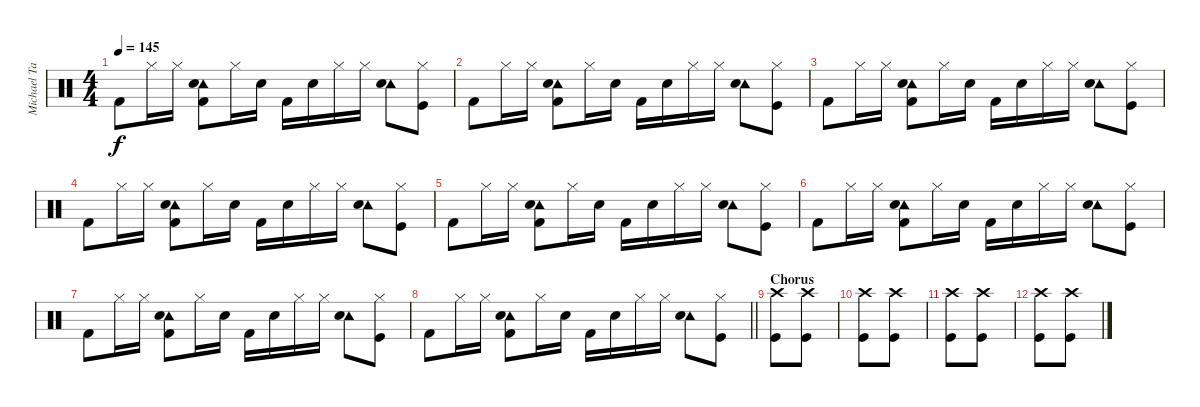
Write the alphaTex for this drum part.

\track ("Michael Tapper - Drums" "Michael Ta") {instrument percussion}
\staff {score}
\articulation defaults
\ts (4 4)
\tempo 145
\clef neutral
\ks c "Kick (hit) 2".8{dy f} "Hi-Hat (closed)".16 "Hi-Hat (closed)".16
("Tambourine (hit)" "Electric Snare (hit)" "Kick (hit) 2").8 "Hi-Hat (closed)".16 "Electric Snare (hit)".16 "Kick (hit) 2".16 "Electric Snare (hit)".16 "Hi-Hat (closed)".16 "Hi-Hat (closed)".16 ("Tambourine (hit)" "Electric Snare (hit)").8 ("Hi-Hat (closed)" "Kick (hit)").8 |
"Kick (hit) 2".8 "Hi-Hat (closed)".16 "Hi-Hat (closed)".16 ("Tambourine (hit)" "Electric Snare (hit)" "Kick (hit) 2").8 "Hi-Hat (closed)".16 "Electric Snare (hit)".16 "Kick (hit) 2".16 "Electric Snare (hit)".16 "Hi-Hat (closed)".16 "Hi-Hat (closed)".16 ("Tambourine (hit)" "Electric Snare (hit)").8 ("Hi-Hat (closed)" "Kick (hit)").8 |
"Kick (hit) 2".8 "Hi-Hat (closed)".16 "Hi-Hat (closed)".16 ("Tambourine (hit)" "Electric Snare (hit)" "Kick (hit) 2").8 "Hi-Hat (closed)".16 "Electric Snare (hit)".16 "Kick (hit) 2".16 "Electric Snare (hit)".16 "Hi-Hat (closed)".16 "Hi-Hat (closed)".16 ("Tambourine (hit)" "Electric Snare (hit)").8 ("Hi-Hat (closed)" "Kick (hit)").8 |
"Kick (hit) 2".8 "Hi-Hat (closed)".16 "Hi-Hat (closed)".16 ("Tambourine (hit)" "Electric Snare (hit)" "Kick (hit) 2").8 "Hi-Hat (closed)".16 "Electric Snare (hit)".16 "Kick (hit) 2".16 "Electric Snare (hit)".16 "Hi-Hat (closed)".16 "Hi-Hat (closed)".16 ("Tambourine (hit)" "Electric Snare (hit)").8 ("Hi-Hat (closed)" "Kick (hit)").8 |
"Kick (hit) 2".8 "Hi-Hat (closed)".16 "Hi-Hat (closed)".16 ("Tambourine (hit)" "Electric Snare (hit)" "Kick (hit) 2").8 "Hi-Hat (closed)".16 "Electric Snare (hit)".16 "Kick (hit) 2".16 "Electric Snare (hit)".16 "Hi-Hat (closed)".16 "Hi-Hat (closed)".16 ("Tambourine (hit)" "Electric Snare (hit)").8 ("Hi-Hat (closed)" "Kick (hit)").8 |
"Kick (hit) 2".8 "Hi-Hat (closed)".16 "Hi-Hat (closed)".16 ("Tambourine (hit)" "Electric Snare (hit)" "Kick (hit) 2").8 "Hi-Hat (closed)".16 "Electric Snare (hit)".16 "Kick (hit) 2".16 "Electric Snare (hit)".16 "Hi-Hat (closed)".16 "Hi-Hat (closed)".16 ("Tambourine (hit)" "Electric Snare (hit)").8 ("Hi-Hat (closed)" "Kick (hit)").8 |
"Kick (hit) 2".8 "Hi-Hat (closed)".16 "Hi-Hat (closed)".16 ("Tambourine (hit)" "Electric Snare (hit)" "Kick (hit) 2").8 "Hi-Hat (closed)".16 "Electric Snare (hit)".16 "Kick (hit) 2".16 "Electric Snare (hit)".16 "Hi-Hat (closed)".16 "Hi-Hat (closed)".16 ("Tambourine (hit)" "Electric Snare (hit)").8 ("Hi-Hat (closed)" "Kick (hit)").8 |
\barLineRight lightlight "Kick (hit) 2".8 "Hi-Hat (closed)".16 "Hi-Hat (closed)".16
("Tambourine (hit)" "Electric Snare (hit)" "Kick (hit) 2").8 "Hi-Hat (closed)".16 "Electric Snare (hit)".16 "Kick (hit) 2".16 "Electric Snare (hit)".16 "Hi-Hat (closed)".16 "Hi-Hat (closed)".16 ("Tambourine (hit)" "Electric Snare (hit)").8 ("Hi-Hat (closed)" "Kick (hit)").8 |
\section ("" "Chorus")
("Crash high (hit)" "Kick (hit)").8 ("Kick (hit)" "Crash high (hit)").8 |
("Crash high (hit)" "Kick (hit)").8 ("Kick (hit)" "Crash high (hit)").8 |
("Crash high (hit)" "Kick (hit)").8 ("Kick (hit)" "Crash high (hit)").8 |
("Crash high (hit)" "Kick (hit)").8 ("Kick (hit)" "Crash high (hit)").8
